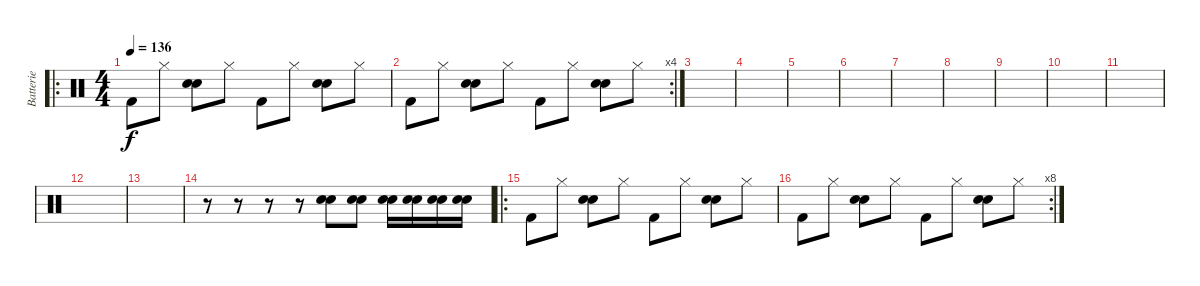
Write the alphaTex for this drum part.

\track ("Batterie" "Batterie") {instrument percussion}
\staff {score}
\articulation defaults
\ro
\ts (4 4)
\tempo 136
\clef neutral
\ks c "Kick (hit) 2".8{dy f} "Hi-Hat (closed)".8
("Electric Snare (hit)" "Snare (hit) 2").8 "Hi-Hat (closed)".8 "Kick (hit) 2".8 "Hi-Hat (closed)".8 ("Electric Snare (hit)" "Snare (hit) 2").8 "Hi-Hat (closed)".8 |
\rc 4 "Kick (hit) 2".8 "Hi-Hat (closed)".8
("Electric Snare (hit)" "Snare (hit) 2").8 "Hi-Hat (closed)".8 "Kick (hit) 2".8 "Hi-Hat (closed)".8 ("Electric Snare (hit)" "Snare (hit) 2").8 "Hi-Hat (closed)".8 |
|
|
|
|
|
|
|
|
|
|
|
r.8 r.8 r.8 r.8 ("Electric Snare (hit)" "Snare (hit) 2").8 ("Electric Snare (hit)" "Snare (hit) 2").8 ("Electric Snare (hit)" "Snare (hit) 2").16 ("Electric Snare (hit)" "Snare (hit) 2").16 ("Electric Snare (hit)" "Snare (hit) 2").16 ("Electric Snare (hit)" "Snare (hit) 2").16 |
\ro "Kick (hit) 2".8 "Hi-Hat (closed)".8
("Electric Snare (hit)" "Snare (hit) 2").8 "Hi-Hat (closed)".8 "Kick (hit) 2".8 "Hi-Hat (closed)".8 ("Electric Snare (hit)" "Snare (hit) 2").8 "Hi-Hat (closed)".8 |
\rc 8 "Kick (hit) 2".8 "Hi-Hat (closed)".8
("Electric Snare (hit)" "Snare (hit) 2").8 "Hi-Hat (closed)".8 "Kick (hit) 2".8 "Hi-Hat (closed)".8 ("Electric Snare (hit)" "Snare (hit) 2").8 "Hi-Hat (closed)".8
